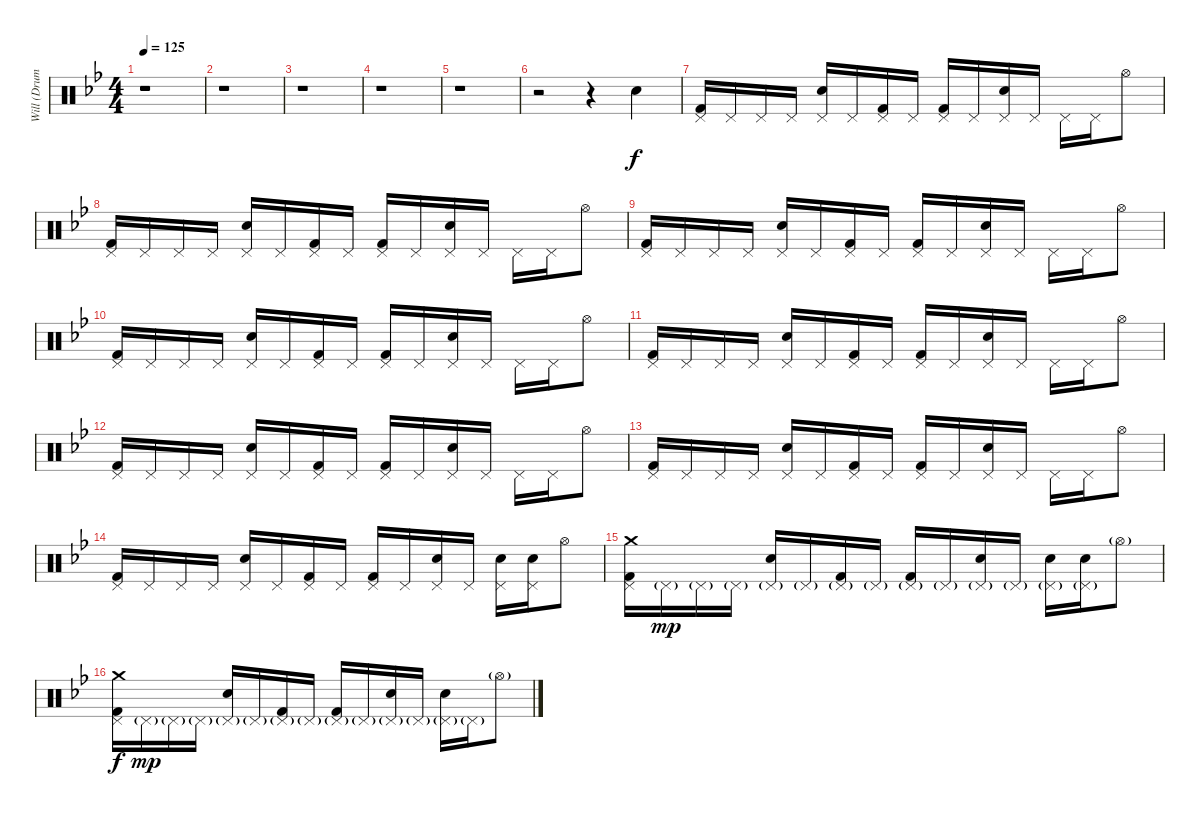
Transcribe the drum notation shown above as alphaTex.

\track ("Will (Drums)" "Will (Drum") {instrument percussion}
\staff {score}
\articulation defaults
\ts (4 4)
\tempo 125
\clef neutral
\ks bb
r.1{dy f} |
r.1 |
r.1 |
r.1 |
r.1 |
r.2 r.4 "Snare (hit) 2".4 |
("Kick (hit) 2" "Pedal Hi-Hat (hit)").16 "Pedal Hi-Hat (hit)".16 "Pedal Hi-Hat (hit)".16 "Pedal Hi-Hat (hit)".16 ("Snare (hit) 2" "Pedal Hi-Hat (hit)").16 "Pedal Hi-Hat (hit)".16 ("Kick (hit) 2" "Pedal Hi-Hat (hit)").16 "Pedal Hi-Hat (hit)".16 ("Kick (hit) 2" "Pedal Hi-Hat (hit)").16 "Pedal Hi-Hat (hit)".16 ("Snare (hit) 2" "Pedal Hi-Hat (hit)").16 "Pedal Hi-Hat (hit)".16 "Pedal Hi-Hat (hit)".16 "Pedal Hi-Hat (hit)".16 "Hi-Hat (open)".8 |
("Kick (hit) 2" "Pedal Hi-Hat (hit)").16 "Pedal Hi-Hat (hit)".16 "Pedal Hi-Hat (hit)".16 "Pedal Hi-Hat (hit)".16 ("Snare (hit) 2" "Pedal Hi-Hat (hit)").16 "Pedal Hi-Hat (hit)".16 ("Kick (hit) 2" "Pedal Hi-Hat (hit)").16 "Pedal Hi-Hat (hit)".16 ("Kick (hit) 2" "Pedal Hi-Hat (hit)").16 "Pedal Hi-Hat (hit)".16 ("Snare (hit) 2" "Pedal Hi-Hat (hit)").16 "Pedal Hi-Hat (hit)".16 "Pedal Hi-Hat (hit)".16 "Pedal Hi-Hat (hit)".16 "Hi-Hat (open)".8 |
("Kick (hit) 2" "Pedal Hi-Hat (hit)").16 "Pedal Hi-Hat (hit)".16 "Pedal Hi-Hat (hit)".16 "Pedal Hi-Hat (hit)".16 ("Snare (hit) 2" "Pedal Hi-Hat (hit)").16 "Pedal Hi-Hat (hit)".16 ("Kick (hit) 2" "Pedal Hi-Hat (hit)").16 "Pedal Hi-Hat (hit)".16 ("Kick (hit) 2" "Pedal Hi-Hat (hit)").16 "Pedal Hi-Hat (hit)".16 ("Snare (hit) 2" "Pedal Hi-Hat (hit)").16 "Pedal Hi-Hat (hit)".16 "Pedal Hi-Hat (hit)".16 "Pedal Hi-Hat (hit)".16 "Hi-Hat (open)".8 |
("Kick (hit) 2" "Pedal Hi-Hat (hit)").16 "Pedal Hi-Hat (hit)".16 "Pedal Hi-Hat (hit)".16 "Pedal Hi-Hat (hit)".16 ("Snare (hit) 2" "Pedal Hi-Hat (hit)").16 "Pedal Hi-Hat (hit)".16 ("Kick (hit) 2" "Pedal Hi-Hat (hit)").16 "Pedal Hi-Hat (hit)".16 ("Kick (hit) 2" "Pedal Hi-Hat (hit)").16 "Pedal Hi-Hat (hit)".16 ("Snare (hit) 2" "Pedal Hi-Hat (hit)").16 "Pedal Hi-Hat (hit)".16 "Pedal Hi-Hat (hit)".16 "Pedal Hi-Hat (hit)".16 "Hi-Hat (open)".8 |
("Kick (hit) 2" "Pedal Hi-Hat (hit)").16 "Pedal Hi-Hat (hit)".16 "Pedal Hi-Hat (hit)".16 "Pedal Hi-Hat (hit)".16 ("Snare (hit) 2" "Pedal Hi-Hat (hit)").16 "Pedal Hi-Hat (hit)".16 ("Kick (hit) 2" "Pedal Hi-Hat (hit)").16 "Pedal Hi-Hat (hit)".16 ("Kick (hit) 2" "Pedal Hi-Hat (hit)").16 "Pedal Hi-Hat (hit)".16 ("Snare (hit) 2" "Pedal Hi-Hat (hit)").16 "Pedal Hi-Hat (hit)".16 "Pedal Hi-Hat (hit)".16 "Pedal Hi-Hat (hit)".16 "Hi-Hat (open)".8 |
("Kick (hit) 2" "Pedal Hi-Hat (hit)").16 "Pedal Hi-Hat (hit)".16 "Pedal Hi-Hat (hit)".16 "Pedal Hi-Hat (hit)".16 ("Snare (hit) 2" "Pedal Hi-Hat (hit)").16 "Pedal Hi-Hat (hit)".16 ("Kick (hit) 2" "Pedal Hi-Hat (hit)").16 "Pedal Hi-Hat (hit)".16 ("Kick (hit) 2" "Pedal Hi-Hat (hit)").16 "Pedal Hi-Hat (hit)".16 ("Snare (hit) 2" "Pedal Hi-Hat (hit)").16 "Pedal Hi-Hat (hit)".16 "Pedal Hi-Hat (hit)".16 "Pedal Hi-Hat (hit)".16 "Hi-Hat (open)".8 |
("Kick (hit) 2" "Pedal Hi-Hat (hit)").16 "Pedal Hi-Hat (hit)".16 "Pedal Hi-Hat (hit)".16 "Pedal Hi-Hat (hit)".16 ("Snare (hit) 2" "Pedal Hi-Hat (hit)").16 "Pedal Hi-Hat (hit)".16 ("Kick (hit) 2" "Pedal Hi-Hat (hit)").16 "Pedal Hi-Hat (hit)".16 ("Kick (hit) 2" "Pedal Hi-Hat (hit)").16 "Pedal Hi-Hat (hit)".16 ("Snare (hit) 2" "Pedal Hi-Hat (hit)").16 "Pedal Hi-Hat (hit)".16 "Pedal Hi-Hat (hit)".16 "Pedal Hi-Hat (hit)".16 "Hi-Hat (open)".8 |
("Kick (hit) 2" "Pedal Hi-Hat (hit)").16 "Pedal Hi-Hat (hit)".16 "Pedal Hi-Hat (hit)".16 "Pedal Hi-Hat (hit)".16 ("Snare (hit) 2" "Pedal Hi-Hat (hit)").16 "Pedal Hi-Hat (hit)".16 ("Kick (hit) 2" "Pedal Hi-Hat (hit)").16 "Pedal Hi-Hat (hit)".16 ("Kick (hit) 2" "Pedal Hi-Hat (hit)").16 "Pedal Hi-Hat (hit)".16 ("Snare (hit) 2" "Pedal Hi-Hat (hit)").16 "Pedal Hi-Hat (hit)".16 ("Snare (hit) 2" "Pedal Hi-Hat (hit)").16 ("Snare (hit) 2" "Pedal Hi-Hat (hit)").16 "Hi-Hat (open)".8 |
("Kick (hit) 2" "Pedal Hi-Hat (hit)" "Crash medium (hit)").16 "Pedal Hi-Hat (hit)"{g}.16{dy mp} "Pedal Hi-Hat (hit)"{g}.16 "Pedal Hi-Hat (hit)"{g}.16 ("Snare (hit) 2" "Pedal Hi-Hat (hit)"{g}).16 "Pedal Hi-Hat (hit)"{g}.16 ("Kick (hit) 2" "Pedal Hi-Hat (hit)"{g}).16 "Pedal Hi-Hat (hit)"{g}.16 ("Kick (hit) 2" "Pedal Hi-Hat (hit)"{g}).16 "Pedal Hi-Hat (hit)"{g}.16 ("Snare (hit) 2" "Pedal Hi-Hat (hit)"{g}).16 "Pedal Hi-Hat (hit)"{g}.16 ("Snare (hit) 2" "Pedal Hi-Hat (hit)"{g}).16 ("Snare (hit) 2" "Pedal Hi-Hat (hit)"{g}).16 "Hi-Hat (open)"{g}.8 |
("Kick (hit) 2" "Pedal Hi-Hat (hit)" "Crash medium (hit)").16{dy f} "Pedal Hi-Hat (hit)"{g}.16{dy mp} "Pedal Hi-Hat (hit)"{g}.16 "Pedal Hi-Hat (hit)"{g}.16 ("Snare (hit) 2" "Pedal Hi-Hat (hit)"{g}).16 "Pedal Hi-Hat (hit)"{g}.16 ("Kick (hit) 2" "Pedal Hi-Hat (hit)"{g}).16 "Pedal Hi-Hat (hit)"{g}.16 ("Kick (hit) 2" "Pedal Hi-Hat (hit)"{g}).16 "Pedal Hi-Hat (hit)"{g}.16 ("Snare (hit) 2" "Pedal Hi-Hat (hit)"{g}).16 "Pedal Hi-Hat (hit)"{g}.16 ("Snare (hit) 2" "Pedal Hi-Hat (hit)"{g}).16 "Pedal Hi-Hat (hit)"{g}.16 "Hi-Hat (open)"{g}.8
